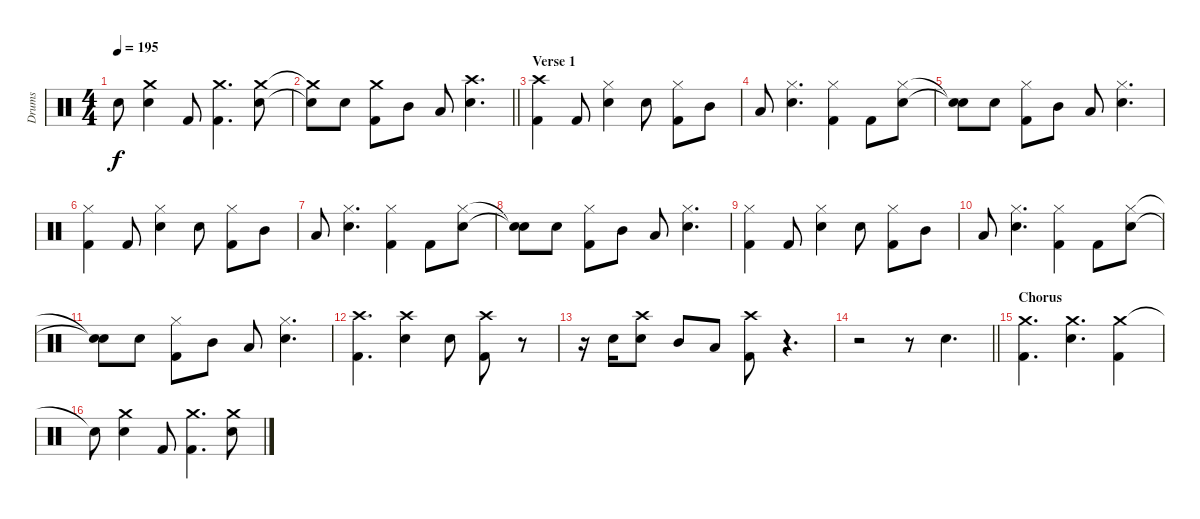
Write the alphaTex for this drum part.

\track ("Drums" "Drums") {instrument percussion}
\staff {score}
\articulation defaults
\ts (4 4)
\tempo 195
\clef neutral
\ks c "Snare (hit)"{t}.8{dy f}
("Crash medium (hit)" "Electric Snare (hit)").4 "Kick (hit) 2".8 ("Crash medium (hit)" "Kick (hit) 2").4{d} ("Crash medium (hit)" "Electric Snare (hit)").8 |
\barLineRight lightlight
("Crash medium (hit)"{t} "Electric Snare (hit)"{t}).8 "Electric Snare (hit)".8 ("Crash medium (hit)" "Kick (hit) 2").8 "Mid Tom (hit)".8 "Low Tom (hit)".8 ("Crash high (hit)" "Electric Snare (hit)").4{d} |
\section ("" "Verse 1")
("Crash high (hit)" "Kick (hit) 2").4 "Kick (hit) 2".8 ("Hi-Hat (closed)" "Electric Snare (hit)").4 "Electric Snare (hit)".8 ("Hi-Hat (closed)" "Kick (hit) 2").8 "Mid Tom (hit)".8 |
"Low Tom (hit)".8 ("Hi-Hat (closed)" "Electric Snare (hit)").4{d} ("Hi-Hat (closed)" "Kick (hit) 2").4 "Kick (hit) 2".8 ("Hi-Hat (closed)" "Electric Snare (hit)").8 |
("Snare (hit)"{t} "Snare (hit)"{t}).8 "Electric Snare (hit)".8 ("Hi-Hat (closed)" "Kick (hit) 2").8 "Mid Tom (hit)".8 "Low Tom (hit)".8 ("Hi-Hat (closed)" "Electric Snare (hit)").4{d} |
("Hi-Hat (closed)" "Kick (hit) 2").4 "Kick (hit) 2".8 ("Hi-Hat (closed)" "Electric Snare (hit)").4 "Electric Snare (hit)".8 ("Hi-Hat (closed)" "Kick (hit) 2").8 "Mid Tom (hit)".8 |
"Low Tom (hit)".8 ("Hi-Hat (closed)" "Electric Snare (hit)").4{d} ("Hi-Hat (closed)" "Kick (hit) 2").4 "Kick (hit) 2".8 ("Hi-Hat (closed)" "Electric Snare (hit)").8 |
("Snare (hit)"{t} "Snare (hit)"{t}).8 "Electric Snare (hit)".8 ("Hi-Hat (closed)" "Kick (hit) 2").8 "Mid Tom (hit)".8 "Low Tom (hit)".8 ("Hi-Hat (closed)" "Electric Snare (hit)").4{d} |
("Hi-Hat (closed)" "Kick (hit) 2").4 "Kick (hit) 2".8 ("Hi-Hat (closed)" "Electric Snare (hit)").4 "Electric Snare (hit)".8 ("Hi-Hat (closed)" "Kick (hit) 2").8 "Mid Tom (hit)".8 |
"Low Tom (hit)".8 ("Hi-Hat (closed)" "Electric Snare (hit)").4{d} ("Hi-Hat (closed)" "Kick (hit) 2").4 "Kick (hit) 2".8 ("Hi-Hat (closed)" "Electric Snare (hit)").8 |
("Snare (hit)"{t} "Snare (hit)"{t}).8 "Electric Snare (hit)".8 ("Hi-Hat (closed)" "Kick (hit) 2").8 "Mid Tom (hit)".8 "Low Tom (hit)".8 ("Hi-Hat (closed)" "Electric Snare (hit)").4{d} |
("Crash high (hit)" "Kick (hit) 2").4{d} ("Crash high (hit)" "Electric Snare (hit)").4 "Electric Snare (hit)".8 ("Crash high (hit)" "Kick (hit) 2").8 r.8 |
r.16 "Electric Snare (hit)".16 ("Crash high (hit)" "Electric Snare (hit)").8 "Mid Tom (hit)".8 "Low Tom (hit)".8 ("Crash high (hit)" "Kick (hit) 2").8 r.4{d} |
\barLineRight lightlight
r.2 r.8 "Electric Snare (hit)".4{d} |
\section ("" "Chorus")
("Crash medium (hit)" "Kick (hit) 2").4{d} ("Crash medium (hit)" "Electric Snare (hit)").4{d} ("Crash medium (hit)" "Kick (hit) 2").4 |
"Snare (hit)"{t}.8 ("Crash medium (hit)" "Electric Snare (hit)").4 "Kick (hit) 2".8 ("Crash medium (hit)" "Kick (hit) 2").4{d} ("Crash medium (hit)" "Electric Snare (hit)").8
